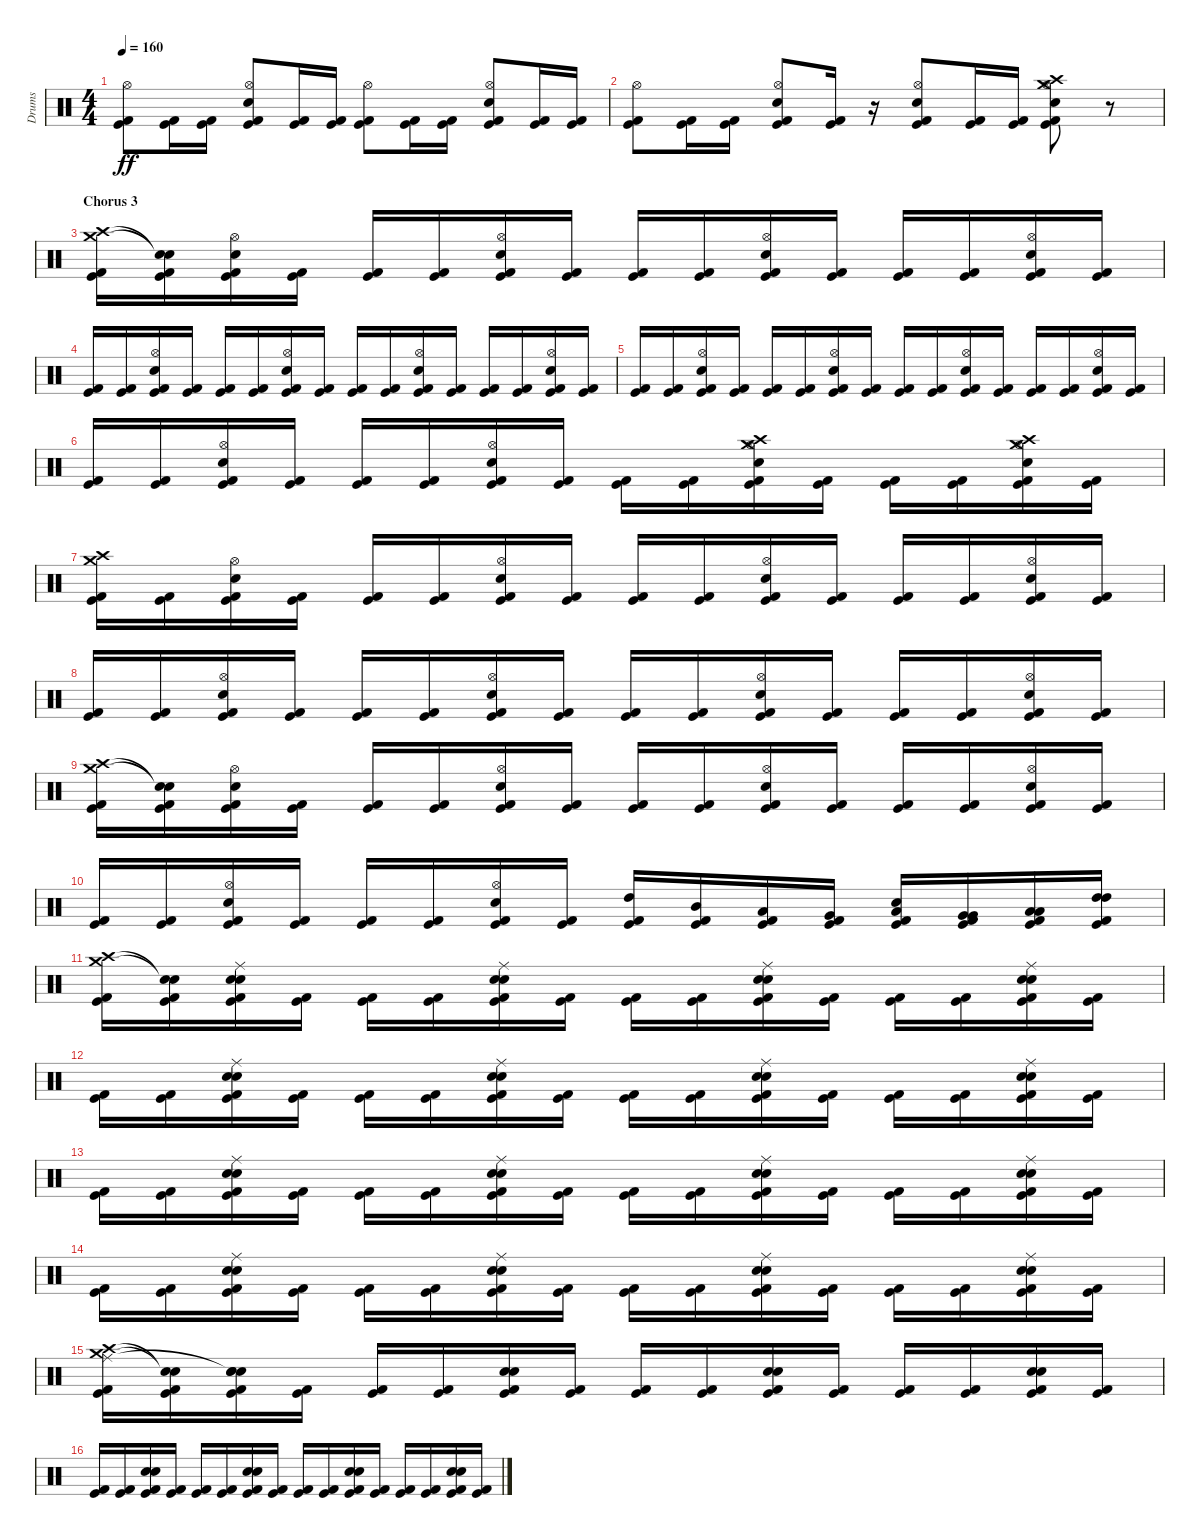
\track ("Drums" "Drums") {instrument percussion}
\staff {score}
\articulation defaults
\ts (4 4)
\tempo 160
\clef neutral
\ks c
("Kick (hit) 2" "Kick (hit)" "Hi-Hat (open)").8{dy ff} ("Kick (hit) 2" "Kick (hit)").16 ("Kick (hit) 2" "Kick (hit)").16 ("Kick (hit) 2" "Kick (hit)" "Snare (hit) 2" "Hi-Hat (open)").8 ("Kick (hit) 2" "Kick (hit)").16 ("Kick (hit) 2" "Kick (hit)").16 ("Kick (hit) 2" "Kick (hit)" "Hi-Hat (open)").8 ("Kick (hit) 2" "Kick (hit)").16 ("Kick (hit) 2" "Kick (hit)").16 ("Kick (hit) 2" "Kick (hit)" "Snare (hit) 2" "Hi-Hat (open)").8 ("Kick (hit) 2" "Kick (hit)").16 ("Kick (hit) 2" "Kick (hit)").16 |
("Kick (hit) 2" "Kick (hit)" "Hi-Hat (open)").8 ("Kick (hit) 2" "Kick (hit)").16 ("Kick (hit) 2" "Kick (hit)").16 ("Kick (hit) 2" "Kick (hit)" "Snare (hit) 2" "Hi-Hat (open)").8 ("Kick (hit) 2" "Kick (hit)").16 r.16 ("Kick (hit) 2" "Kick (hit)" "Snare (hit) 2" "Hi-Hat (open)").8 ("Kick (hit) 2" "Kick (hit)").16 ("Kick (hit) 2" "Kick (hit)").16 ("Kick (hit) 2" "Kick (hit)" "Snare (hit) 2" "Hi-Hat (open)" "Crash high (hit)" "Crash medium (hit)").8 r.8 |
\section ("" "Chorus 3")
("Kick (hit) 2" "Kick (hit)" "Crash high (hit)" "Crash medium (hit)").16 ("Kick (hit) 2" "Kick (hit)" "Snare (hit)"{t} "Snare (hit)"{t}).16 ("Kick (hit) 2" "Kick (hit)" "Hi-Hat (open)" "Snare (hit) 2").16 ("Kick (hit) 2" "Kick (hit)").16 ("Kick (hit) 2" "Kick (hit)").16 ("Kick (hit) 2" "Kick (hit)").16 ("Kick (hit) 2" "Kick (hit)" "Hi-Hat (open)" "Snare (hit) 2").16 ("Kick (hit) 2" "Kick (hit)").16 ("Kick (hit) 2" "Kick (hit)").16 ("Kick (hit) 2" "Kick (hit)").16 ("Kick (hit) 2" "Kick (hit)" "Hi-Hat (open)" "Snare (hit) 2").16 ("Kick (hit) 2" "Kick (hit)").16 ("Kick (hit) 2" "Kick (hit)").16 ("Kick (hit) 2" "Kick (hit)").16 ("Kick (hit) 2" "Kick (hit)" "Hi-Hat (open)" "Snare (hit) 2").16 ("Kick (hit) 2" "Kick (hit)").16 |
("Kick (hit) 2" "Kick (hit)").16 ("Kick (hit) 2" "Kick (hit)").16 ("Kick (hit) 2" "Kick (hit)" "Hi-Hat (open)" "Snare (hit) 2").16 ("Kick (hit) 2" "Kick (hit)").16 ("Kick (hit) 2" "Kick (hit)").16 ("Kick (hit) 2" "Kick (hit)").16 ("Kick (hit) 2" "Kick (hit)" "Hi-Hat (open)" "Snare (hit) 2").16 ("Kick (hit) 2" "Kick (hit)").16 ("Kick (hit) 2" "Kick (hit)").16 ("Kick (hit) 2" "Kick (hit)").16 ("Kick (hit) 2" "Kick (hit)" "Hi-Hat (open)" "Snare (hit) 2").16 ("Kick (hit) 2" "Kick (hit)").16 ("Kick (hit) 2" "Kick (hit)").16 ("Kick (hit) 2" "Kick (hit)").16 ("Kick (hit) 2" "Kick (hit)" "Hi-Hat (open)" "Snare (hit) 2").16 ("Kick (hit) 2" "Kick (hit)").16 |
("Kick (hit) 2" "Kick (hit)").16 ("Kick (hit) 2" "Kick (hit)").16 ("Kick (hit) 2" "Kick (hit)" "Hi-Hat (open)" "Snare (hit) 2").16 ("Kick (hit) 2" "Kick (hit)").16 ("Kick (hit) 2" "Kick (hit)").16 ("Kick (hit) 2" "Kick (hit)").16 ("Kick (hit) 2" "Kick (hit)" "Hi-Hat (open)" "Snare (hit) 2").16 ("Kick (hit) 2" "Kick (hit)").16 ("Kick (hit) 2" "Kick (hit)").16 ("Kick (hit) 2" "Kick (hit)").16 ("Kick (hit) 2" "Kick (hit)" "Hi-Hat (open)" "Snare (hit) 2").16 ("Kick (hit) 2" "Kick (hit)").16 ("Kick (hit) 2" "Kick (hit)").16 ("Kick (hit) 2" "Kick (hit)").16 ("Kick (hit) 2" "Kick (hit)" "Hi-Hat (open)" "Snare (hit) 2").16 ("Kick (hit) 2" "Kick (hit)").16 |
("Kick (hit) 2" "Kick (hit)").16 ("Kick (hit) 2" "Kick (hit)").16 ("Kick (hit) 2" "Kick (hit)" "Hi-Hat (open)" "Snare (hit) 2").16 ("Kick (hit) 2" "Kick (hit)").16 ("Kick (hit) 2" "Kick (hit)").16 ("Kick (hit) 2" "Kick (hit)").16 ("Kick (hit) 2" "Kick (hit)" "Hi-Hat (open)" "Snare (hit) 2").16 ("Kick (hit) 2" "Kick (hit)").16 ("Kick (hit) 2" "Kick (hit)").16 ("Kick (hit) 2" "Kick (hit)").16 ("Kick (hit) 2" "Kick (hit)" "Hi-Hat (open)" "Snare (hit) 2" "Crash high (hit)" "Crash medium (hit)").16 ("Kick (hit) 2" "Kick (hit)").16 ("Kick (hit) 2" "Kick (hit)").16 ("Kick (hit) 2" "Kick (hit)").16 ("Kick (hit) 2" "Kick (hit)" "Hi-Hat (open)" "Snare (hit) 2" "Crash high (hit)" "Crash medium (hit)").16 ("Kick (hit) 2" "Kick (hit)").16 |
("Kick (hit) 2" "Kick (hit)" "Crash high (hit)" "Crash medium (hit)").16 ("Kick (hit) 2" "Kick (hit)").16 ("Kick (hit) 2" "Kick (hit)" "Hi-Hat (open)" "Snare (hit) 2").16 ("Kick (hit) 2" "Kick (hit)").16 ("Kick (hit) 2" "Kick (hit)").16 ("Kick (hit) 2" "Kick (hit)").16 ("Kick (hit) 2" "Kick (hit)" "Hi-Hat (open)" "Snare (hit) 2").16 ("Kick (hit) 2" "Kick (hit)").16 ("Kick (hit) 2" "Kick (hit)").16 ("Kick (hit) 2" "Kick (hit)").16 ("Kick (hit) 2" "Kick (hit)" "Hi-Hat (open)" "Snare (hit) 2").16 ("Kick (hit) 2" "Kick (hit)").16 ("Kick (hit) 2" "Kick (hit)").16 ("Kick (hit) 2" "Kick (hit)").16 ("Kick (hit) 2" "Kick (hit)" "Hi-Hat (open)" "Snare (hit) 2").16 ("Kick (hit) 2" "Kick (hit)").16 |
("Kick (hit) 2" "Kick (hit)").16 ("Kick (hit) 2" "Kick (hit)").16 ("Kick (hit) 2" "Kick (hit)" "Hi-Hat (open)" "Snare (hit) 2").16 ("Kick (hit) 2" "Kick (hit)").16 ("Kick (hit) 2" "Kick (hit)").16 ("Kick (hit) 2" "Kick (hit)").16 ("Kick (hit) 2" "Kick (hit)" "Hi-Hat (open)" "Snare (hit) 2").16 ("Kick (hit) 2" "Kick (hit)").16 ("Kick (hit) 2" "Kick (hit)").16 ("Kick (hit) 2" "Kick (hit)").16 ("Kick (hit) 2" "Kick (hit)" "Hi-Hat (open)" "Snare (hit) 2").16 ("Kick (hit) 2" "Kick (hit)").16 ("Kick (hit) 2" "Kick (hit)").16 ("Kick (hit) 2" "Kick (hit)").16 ("Kick (hit) 2" "Kick (hit)" "Hi-Hat (open)" "Snare (hit) 2").16 ("Kick (hit) 2" "Kick (hit)").16 |
("Kick (hit) 2" "Kick (hit)" "Crash high (hit)" "Crash medium (hit)").16 ("Kick (hit) 2" "Kick (hit)" "Snare (hit)"{t} "Snare (hit)"{t}).16 ("Kick (hit) 2" "Kick (hit)" "Hi-Hat (open)" "Snare (hit) 2").16 ("Kick (hit) 2" "Kick (hit)").16 ("Kick (hit) 2" "Kick (hit)").16 ("Kick (hit) 2" "Kick (hit)").16 ("Kick (hit) 2" "Kick (hit)" "Hi-Hat (open)" "Snare (hit) 2").16 ("Kick (hit) 2" "Kick (hit)").16 ("Kick (hit) 2" "Kick (hit)").16 ("Kick (hit) 2" "Kick (hit)").16 ("Kick (hit) 2" "Kick (hit)" "Hi-Hat (open)" "Snare (hit) 2").16 ("Kick (hit) 2" "Kick (hit)").16 ("Kick (hit) 2" "Kick (hit)").16 ("Kick (hit) 2" "Kick (hit)").16 ("Kick (hit) 2" "Kick (hit)" "Hi-Hat (open)" "Snare (hit) 2").16 ("Kick (hit) 2" "Kick (hit)").16 |
("Kick (hit) 2" "Kick (hit)").16 ("Kick (hit) 2" "Kick (hit)").16 ("Kick (hit) 2" "Kick (hit)" "Hi-Hat (open)" "Snare (hit) 2").16 ("Kick (hit) 2" "Kick (hit)").16 ("Kick (hit) 2" "Kick (hit)").16 ("Kick (hit) 2" "Kick (hit)").16 ("Kick (hit) 2" "Kick (hit)" "Hi-Hat (open)" "Snare (hit) 2").16 ("Kick (hit) 2" "Kick (hit)").16 ("Kick (hit) 2" "Kick (hit)" "High Tom (hit)").16 ("Kick (hit) 2" "Kick (hit)" "Mid Tom (hit)").16 ("Kick (hit) 2" "Kick (hit)" "Low Tom (hit)").16 ("Kick (hit) 2" "Kick (hit)" "Very Low Tom (hit)").16 ("Kick (hit) 2" "Kick (hit)" "Low Tom (hit)" "Snare (hit)").16 ("Kick (hit) 2" "Kick (hit)" "Very Low Tom (hit)" "Very Low Tom (hit)").16 ("Kick (hit) 2" "Kick (hit)" "Low Floor Tom (hit)" "Low Floor Tom (hit)").16 ("Kick (hit) 2" "Kick (hit)" "High Tom (hit)" "High Tom (hit)").16 |
("Kick (hit) 2" "Kick (hit)" "Crash high (hit)" "Crash medium (hit)").16 ("Kick (hit) 2" "Kick (hit)" "Snare (hit)"{t} "Snare (hit)"{t}).16 ("Kick (hit) 2" "Kick (hit)" "Electric Snare (hit)" "Snare (hit) 2" "Ride (middle)").16 ("Kick (hit) 2" "Kick (hit)").16 ("Kick (hit) 2" "Kick (hit)").16 ("Kick (hit) 2" "Kick (hit)").16 ("Kick (hit) 2" "Kick (hit)" "Electric Snare (hit)" "Snare (hit) 2" "Ride (middle)").16 ("Kick (hit) 2" "Kick (hit)").16 ("Kick (hit) 2" "Kick (hit)").16 ("Kick (hit) 2" "Kick (hit)").16 ("Kick (hit) 2" "Kick (hit)" "Electric Snare (hit)" "Snare (hit) 2" "Ride (middle)").16 ("Kick (hit) 2" "Kick (hit)").16 ("Kick (hit) 2" "Kick (hit)").16 ("Kick (hit) 2" "Kick (hit)").16 ("Kick (hit) 2" "Kick (hit)" "Electric Snare (hit)" "Snare (hit) 2" "Ride (middle)").16 ("Kick (hit) 2" "Kick (hit)").16 |
("Kick (hit) 2" "Kick (hit)").16 ("Kick (hit) 2" "Kick (hit)").16 ("Kick (hit) 2" "Kick (hit)" "Electric Snare (hit)" "Snare (hit) 2" "Ride (middle)").16 ("Kick (hit) 2" "Kick (hit)").16 ("Kick (hit) 2" "Kick (hit)").16 ("Kick (hit) 2" "Kick (hit)").16 ("Kick (hit) 2" "Kick (hit)" "Electric Snare (hit)" "Snare (hit) 2" "Ride (middle)").16 ("Kick (hit) 2" "Kick (hit)").16 ("Kick (hit) 2" "Kick (hit)").16 ("Kick (hit) 2" "Kick (hit)").16 ("Kick (hit) 2" "Kick (hit)" "Electric Snare (hit)" "Snare (hit) 2" "Ride (middle)").16 ("Kick (hit) 2" "Kick (hit)").16 ("Kick (hit) 2" "Kick (hit)").16 ("Kick (hit) 2" "Kick (hit)").16 ("Kick (hit) 2" "Kick (hit)" "Electric Snare (hit)" "Snare (hit) 2" "Ride (middle)").16 ("Kick (hit) 2" "Kick (hit)").16 |
("Kick (hit) 2" "Kick (hit)").16 ("Kick (hit) 2" "Kick (hit)").16 ("Kick (hit) 2" "Kick (hit)" "Electric Snare (hit)" "Snare (hit) 2" "Ride (middle)").16 ("Kick (hit) 2" "Kick (hit)").16 ("Kick (hit) 2" "Kick (hit)").16 ("Kick (hit) 2" "Kick (hit)").16 ("Kick (hit) 2" "Kick (hit)" "Electric Snare (hit)" "Snare (hit) 2" "Ride (middle)").16 ("Kick (hit) 2" "Kick (hit)").16 ("Kick (hit) 2" "Kick (hit)").16 ("Kick (hit) 2" "Kick (hit)").16 ("Kick (hit) 2" "Kick (hit)" "Electric Snare (hit)" "Snare (hit) 2" "Ride (middle)").16 ("Kick (hit) 2" "Kick (hit)").16 ("Kick (hit) 2" "Kick (hit)").16 ("Kick (hit) 2" "Kick (hit)").16 ("Kick (hit) 2" "Kick (hit)" "Electric Snare (hit)" "Snare (hit) 2" "Ride (middle)").16 ("Kick (hit) 2" "Kick (hit)").16 |
("Kick (hit) 2" "Kick (hit)").16 ("Kick (hit) 2" "Kick (hit)").16 ("Kick (hit) 2" "Kick (hit)" "Electric Snare (hit)" "Snare (hit) 2" "Ride (middle)").16 ("Kick (hit) 2" "Kick (hit)").16 ("Kick (hit) 2" "Kick (hit)").16 ("Kick (hit) 2" "Kick (hit)").16 ("Kick (hit) 2" "Kick (hit)" "Electric Snare (hit)" "Snare (hit) 2" "Ride (middle)").16 ("Kick (hit) 2" "Kick (hit)").16 ("Kick (hit) 2" "Kick (hit)").16 ("Kick (hit) 2" "Kick (hit)").16 ("Kick (hit) 2" "Kick (hit)" "Electric Snare (hit)" "Snare (hit) 2" "Ride (middle)").16 ("Kick (hit) 2" "Kick (hit)").16 ("Kick (hit) 2" "Kick (hit)").16 ("Kick (hit) 2" "Kick (hit)").16 ("Kick (hit) 2" "Kick (hit)" "Electric Snare (hit)" "Snare (hit) 2" "Ride (middle)").16 ("Kick (hit) 2" "Kick (hit)").16 |
("Kick (hit) 2" "Kick (hit)" "Crash high (hit)" "Crash medium (hit)" "Ride (middle)").16 ("Kick (hit) 2" "Kick (hit)" "Snare (hit)"{t} "Snare (hit)"{t}).16 ("Kick (hit) 2" "Kick (hit)" "Electric Snare (hit)" "Snare (hit) 2" "Snare (hit)"{t}).16 ("Kick (hit) 2" "Kick (hit)").16 ("Kick (hit) 2" "Kick (hit)").16 ("Kick (hit) 2" "Kick (hit)").16 ("Kick (hit) 2" "Kick (hit)" "Electric Snare (hit)" "Snare (hit) 2").16 ("Kick (hit) 2" "Kick (hit)").16 ("Kick (hit) 2" "Kick (hit)").16 ("Kick (hit) 2" "Kick (hit)").16 ("Kick (hit) 2" "Kick (hit)" "Electric Snare (hit)" "Snare (hit) 2").16 ("Kick (hit) 2" "Kick (hit)").16 ("Kick (hit) 2" "Kick (hit)").16 ("Kick (hit) 2" "Kick (hit)").16 ("Kick (hit) 2" "Kick (hit)" "Electric Snare (hit)" "Snare (hit) 2").16 ("Kick (hit) 2" "Kick (hit)").16 |
("Kick (hit) 2" "Kick (hit)").16 ("Kick (hit) 2" "Kick (hit)").16 ("Kick (hit) 2" "Kick (hit)" "Electric Snare (hit)" "Snare (hit) 2").16 ("Kick (hit) 2" "Kick (hit)").16 ("Kick (hit) 2" "Kick (hit)").16 ("Kick (hit) 2" "Kick (hit)").16 ("Kick (hit) 2" "Kick (hit)" "Electric Snare (hit)" "Snare (hit) 2").16 ("Kick (hit) 2" "Kick (hit)").16 ("Kick (hit) 2" "Kick (hit)").16 ("Kick (hit) 2" "Kick (hit)").16 ("Kick (hit) 2" "Kick (hit)" "Electric Snare (hit)" "Snare (hit) 2").16 ("Kick (hit) 2" "Kick (hit)").16 ("Kick (hit) 2" "Kick (hit)").16 ("Kick (hit) 2" "Kick (hit)").16 ("Kick (hit) 2" "Kick (hit)" "Electric Snare (hit)" "Snare (hit) 2").16 ("Kick (hit) 2" "Kick (hit)").16
